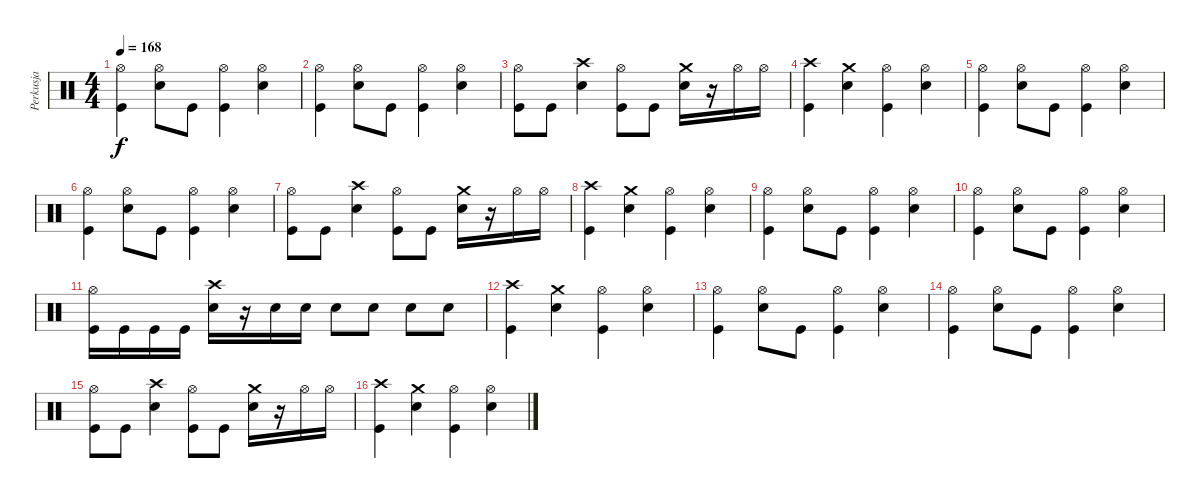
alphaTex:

\track ("Perkusja" "Perkusja") {instrument percussion}
\staff {score}
\articulation defaults
\ts (4 4)
\tempo 168
\clef neutral
\ks c
("Kick (hit)" "Hi-Hat (open)").4{dy f} ("Hi-Hat (open)" "Snare (hit) 2").8 "Kick (hit)".8 ("Kick (hit)" "Hi-Hat (open)").4 ("Hi-Hat (open)" "Snare (hit) 2").4 |
("Kick (hit)" "Hi-Hat (open)").4 ("Hi-Hat (open)" "Snare (hit) 2").8 "Kick (hit)".8 ("Kick (hit)" "Hi-Hat (open)").4 ("Hi-Hat (open)" "Snare (hit) 2").4 |
("Kick (hit)" "Hi-Hat (open)").8 "Kick (hit)".8 ("Crash high (hit)" "Snare (hit) 2").4 ("Kick (hit)" "Hi-Hat (open)").8 "Kick (hit)".8 ("Crash medium (hit)" "Snare (hit) 2").16 r.16 "Hi-Hat (open)".16 "Hi-Hat (open)".16 |
("Kick (hit)" "Crash high (hit)").4 ("Crash medium (hit)" "Snare (hit) 2").4 ("Kick (hit)" "Hi-Hat (open)").4 ("Hi-Hat (open)" "Snare (hit) 2").4 |
("Kick (hit)" "Hi-Hat (open)").4 ("Hi-Hat (open)" "Snare (hit) 2").8 "Kick (hit)".8 ("Kick (hit)" "Hi-Hat (open)").4 ("Hi-Hat (open)" "Snare (hit) 2").4 |
("Kick (hit)" "Hi-Hat (open)").4 ("Hi-Hat (open)" "Snare (hit) 2").8 "Kick (hit)".8 ("Kick (hit)" "Hi-Hat (open)").4 ("Hi-Hat (open)" "Snare (hit) 2").4 |
("Kick (hit)" "Hi-Hat (open)").8 "Kick (hit)".8 ("Crash high (hit)" "Snare (hit) 2").4 ("Kick (hit)" "Hi-Hat (open)").8 "Kick (hit)".8 ("Crash medium (hit)" "Snare (hit) 2").16 r.16 "Hi-Hat (open)".16 "Hi-Hat (open)".16 |
("Kick (hit)" "Crash high (hit)").4 ("Crash medium (hit)" "Snare (hit) 2").4 ("Kick (hit)" "Hi-Hat (open)").4 ("Hi-Hat (open)" "Snare (hit) 2").4 |
("Kick (hit)" "Hi-Hat (open)").4 ("Hi-Hat (open)" "Snare (hit) 2").8 "Kick (hit)".8 ("Kick (hit)" "Hi-Hat (open)").4 ("Hi-Hat (open)" "Snare (hit) 2").4 |
("Kick (hit)" "Hi-Hat (open)").4 ("Hi-Hat (open)" "Snare (hit) 2").8 "Kick (hit)".8 ("Kick (hit)" "Hi-Hat (open)").4 ("Hi-Hat (open)" "Snare (hit) 2").4 |
("Kick (hit)" "Hi-Hat (open)").16 "Kick (hit)".16 "Kick (hit)".16 "Kick (hit)".16 ("Crash high (hit)" "Snare (hit) 2").16 r.16 "Snare (hit) 2".16 "Snare (hit) 2".16 "Snare (hit) 2".8 "Snare (hit) 2".8 "Snare (hit) 2".8 "Snare (hit) 2".8 |
("Kick (hit)" "Crash high (hit)").4 ("Crash medium (hit)" "Snare (hit) 2").4 ("Kick (hit)" "Hi-Hat (open)").4 ("Hi-Hat (open)" "Snare (hit) 2").4 |
("Kick (hit)" "Hi-Hat (open)").4 ("Hi-Hat (open)" "Snare (hit) 2").8 "Kick (hit)".8 ("Kick (hit)" "Hi-Hat (open)").4 ("Hi-Hat (open)" "Snare (hit) 2").4 |
("Kick (hit)" "Hi-Hat (open)").4 ("Hi-Hat (open)" "Snare (hit) 2").8 "Kick (hit)".8 ("Kick (hit)" "Hi-Hat (open)").4 ("Hi-Hat (open)" "Snare (hit) 2").4 |
("Kick (hit)" "Hi-Hat (open)").8 "Kick (hit)".8 ("Crash high (hit)" "Snare (hit) 2").4 ("Kick (hit)" "Hi-Hat (open)").8 "Kick (hit)".8 ("Crash medium (hit)" "Snare (hit) 2").16 r.16 "Hi-Hat (open)".16 "Hi-Hat (open)".16 |
("Kick (hit)" "Crash high (hit)").4 ("Crash medium (hit)" "Snare (hit) 2").4 ("Kick (hit)" "Hi-Hat (open)").4 ("Hi-Hat (open)" "Snare (hit) 2").4
